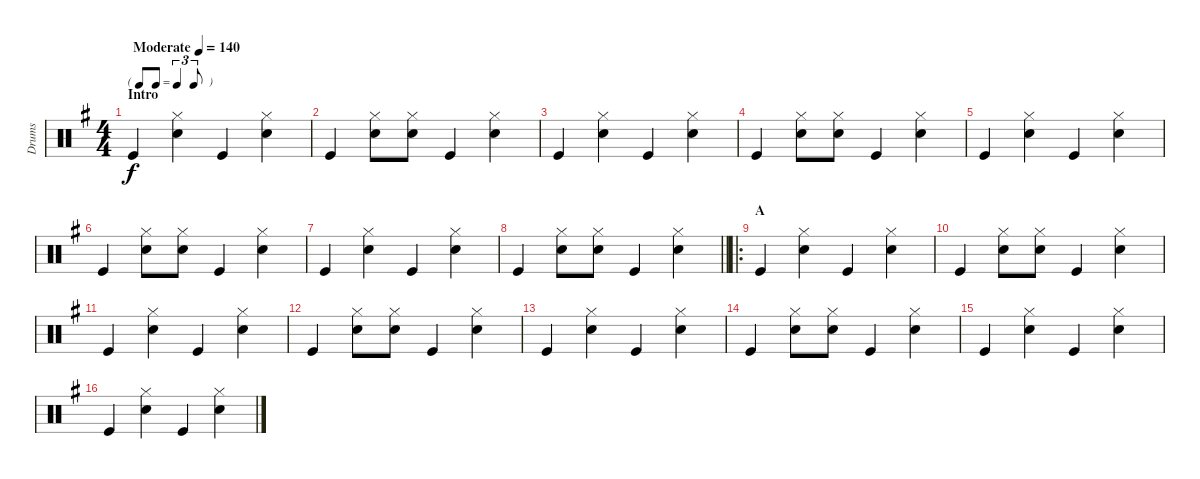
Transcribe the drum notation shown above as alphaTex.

\track ("Drums" "Drums") {instrument percussion}
\staff {score}
\articulation defaults
\ts (4 4)
\tf triplet8th
\section ("" "Intro")
\tempo (140 "Moderate")
\clef neutral
\ks g "Kick (hit)".4{dy f}
("Hi-Hat (closed)" "Snare (hit) 2").4 "Kick (hit)".4 ("Hi-Hat (closed)" "Snare (hit) 2").4 |
"Kick (hit)".4 ("Hi-Hat (closed)" "Snare (hit) 2").8 ("Hi-Hat (closed)" "Snare (hit) 2").8 "Kick (hit)".4 ("Hi-Hat (closed)" "Snare (hit) 2").4 |
"Kick (hit)".4 ("Hi-Hat (closed)" "Snare (hit) 2").4 "Kick (hit)".4 ("Hi-Hat (closed)" "Snare (hit) 2").4 |
"Kick (hit)".4 ("Hi-Hat (closed)" "Snare (hit) 2").8 ("Hi-Hat (closed)" "Snare (hit) 2").8 "Kick (hit)".4 ("Hi-Hat (closed)" "Snare (hit) 2").4 |
"Kick (hit)".4 ("Hi-Hat (closed)" "Snare (hit) 2").4 "Kick (hit)".4 ("Hi-Hat (closed)" "Snare (hit) 2").4 |
"Kick (hit)".4 ("Hi-Hat (closed)" "Snare (hit) 2").8 ("Hi-Hat (closed)" "Snare (hit) 2").8 "Kick (hit)".4 ("Hi-Hat (closed)" "Snare (hit) 2").4 |
"Kick (hit)".4 ("Hi-Hat (closed)" "Snare (hit) 2").4 "Kick (hit)".4 ("Hi-Hat (closed)" "Snare (hit) 2").4 |
\barLineRight lightlight "Kick (hit)".4
("Hi-Hat (closed)" "Snare (hit) 2").8 ("Hi-Hat (closed)" "Snare (hit) 2").8 "Kick (hit)".4 ("Hi-Hat (closed)" "Snare (hit) 2").4 |
\ro
\section ("" "A")
"Kick (hit)".4 ("Hi-Hat (closed)" "Snare (hit) 2").4 "Kick (hit)".4 ("Hi-Hat (closed)" "Snare (hit) 2").4 |
"Kick (hit)".4 ("Hi-Hat (closed)" "Snare (hit) 2").8 ("Hi-Hat (closed)" "Snare (hit) 2").8 "Kick (hit)".4 ("Hi-Hat (closed)" "Snare (hit) 2").4 |
"Kick (hit)".4 ("Hi-Hat (closed)" "Snare (hit) 2").4 "Kick (hit)".4 ("Hi-Hat (closed)" "Snare (hit) 2").4 |
"Kick (hit)".4 ("Hi-Hat (closed)" "Snare (hit) 2").8 ("Hi-Hat (closed)" "Snare (hit) 2").8 "Kick (hit)".4 ("Hi-Hat (closed)" "Snare (hit) 2").4 |
"Kick (hit)".4 ("Hi-Hat (closed)" "Snare (hit) 2").4 "Kick (hit)".4 ("Hi-Hat (closed)" "Snare (hit) 2").4 |
"Kick (hit)".4 ("Hi-Hat (closed)" "Snare (hit) 2").8 ("Hi-Hat (closed)" "Snare (hit) 2").8 "Kick (hit)".4 ("Hi-Hat (closed)" "Snare (hit) 2").4 |
"Kick (hit)".4 ("Hi-Hat (closed)" "Snare (hit) 2").4 "Kick (hit)".4 ("Hi-Hat (closed)" "Snare (hit) 2").4 |
"Kick (hit)".4 ("Hi-Hat (closed)" "Snare (hit) 2").4 "Kick (hit)".4 ("Hi-Hat (closed)" "Snare (hit) 2").4
